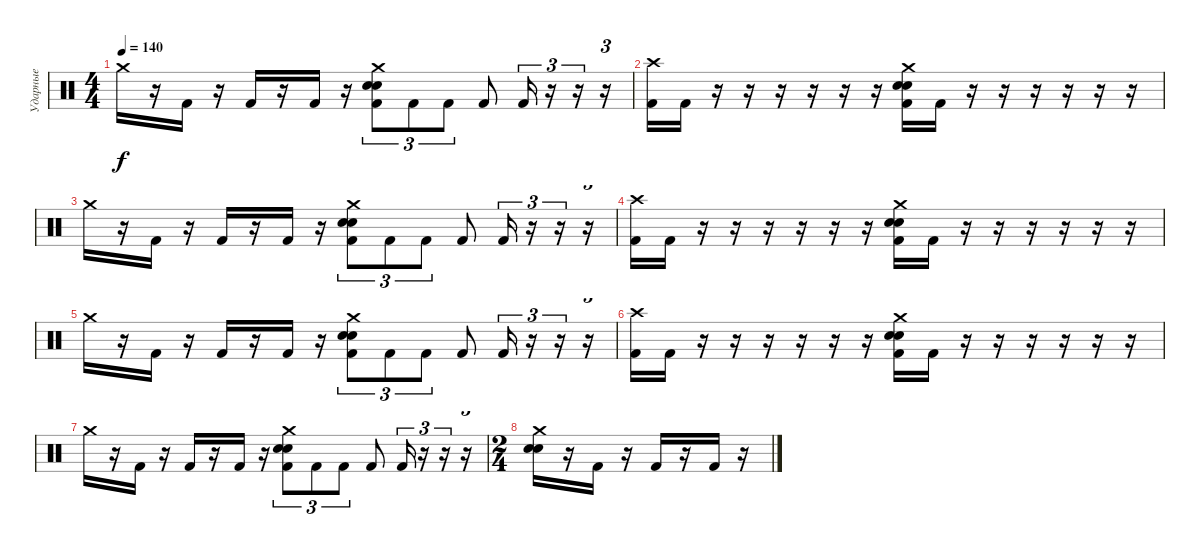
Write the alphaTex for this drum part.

\track ("Ударные" "Ударные") {instrument percussion}
\staff {score}
\articulation defaults
\ts (4 4)
\tempo 140
\clef neutral
\ks c "Crash medium (hit)".16{dy f}
r.16 "Kick (hit) 2".16 r.16 "Kick (hit) 2".16 r.16 "Kick (hit) 2".16 r.16 ("Crash medium (hit)" "Snare (hit) 2" "Electric Snare (hit)" "Kick (hit) 2").8{tu (3 2)} "Kick (hit) 2".8{tu (3 2)} "Kick (hit) 2".8{tu (3 2)} "Kick (hit) 2".8 "Kick (hit) 2".16{tu (3 2)} r.16{tu (3 2)} r.16{tu (3 2)} r.16{tu (3 2)} |
("Crash high (hit)" "Kick (hit) 2").16 "Kick (hit) 2".16 r.16 r.16 r.16 r.16 r.16 r.16 ("Crash medium (hit)" "Electric Snare (hit)" "Snare (hit) 2" "Kick (hit) 2").16 "Kick (hit) 2".16 r.16 r.16 r.16 r.16 r.16 r.16 |
"Crash medium (hit)".16 r.16 "Kick (hit) 2".16 r.16 "Kick (hit) 2".16 r.16 "Kick (hit) 2".16 r.16 ("Crash medium (hit)" "Snare (hit) 2" "Electric Snare (hit)" "Kick (hit) 2").8{tu (3 2)} "Kick (hit) 2".8{tu (3 2)} "Kick (hit) 2".8{tu (3 2)} "Kick (hit) 2".8 "Kick (hit) 2".16{tu (3 2)} r.16{tu (3 2)} r.16{tu (3 2)} r.16{tu (3 2)} |
("Crash high (hit)" "Kick (hit) 2").16 "Kick (hit) 2".16 r.16 r.16 r.16 r.16 r.16 r.16 ("Crash medium (hit)" "Electric Snare (hit)" "Snare (hit) 2" "Kick (hit) 2").16 "Kick (hit) 2".16 r.16 r.16 r.16 r.16 r.16 r.16 |
"Crash medium (hit)".16 r.16 "Kick (hit) 2".16 r.16 "Kick (hit) 2".16 r.16 "Kick (hit) 2".16 r.16 ("Crash medium (hit)" "Snare (hit) 2" "Electric Snare (hit)" "Kick (hit) 2").8{tu (3 2)} "Kick (hit) 2".8{tu (3 2)} "Kick (hit) 2".8{tu (3 2)} "Kick (hit) 2".8 "Kick (hit) 2".16{tu (3 2)} r.16{tu (3 2)} r.16{tu (3 2)} r.16{tu (3 2)} |
("Crash high (hit)" "Kick (hit) 2").16 "Kick (hit) 2".16 r.16 r.16 r.16 r.16 r.16 r.16 ("Crash medium (hit)" "Electric Snare (hit)" "Snare (hit) 2" "Kick (hit) 2").16 "Kick (hit) 2".16 r.16 r.16 r.16 r.16 r.16 r.16 |
"Crash medium (hit)".16 r.16 "Kick (hit) 2".16 r.16 "Kick (hit) 2".16 r.16 "Kick (hit) 2".16 r.16 ("Crash medium (hit)" "Snare (hit) 2" "Electric Snare (hit)" "Kick (hit) 2").8{tu (3 2)} "Kick (hit) 2".8{tu (3 2)} "Kick (hit) 2".8{tu (3 2)} "Kick (hit) 2".8 "Kick (hit) 2".16{tu (3 2)} r.16{tu (3 2)} r.16{tu (3 2)} r.16{tu (3 2)} |
\ts (2 4)
("Crash medium (hit)" "Electric Snare (hit)" "Snare (hit) 2").16 r.16 "Kick (hit) 2".16 r.16 "Kick (hit) 2".16 r.16 "Kick (hit) 2".16 r.16
